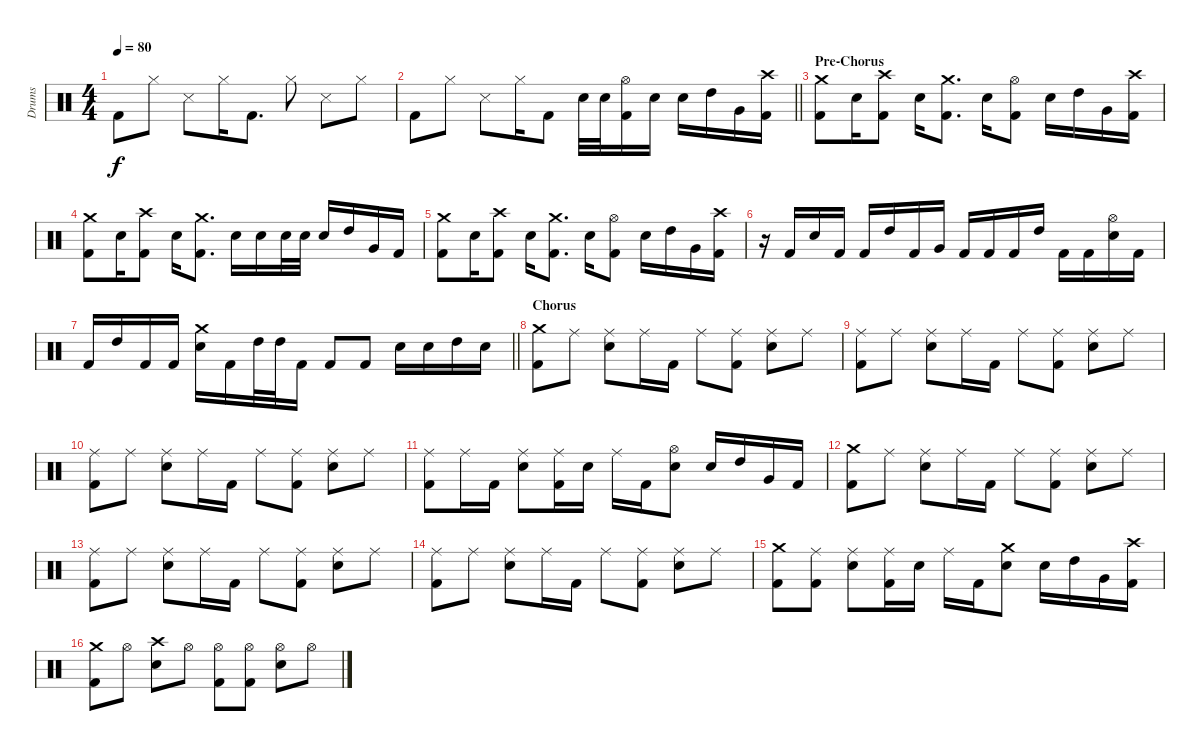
\track ("Drums" "Drums") {instrument percussion}
\staff {score}
\articulation defaults
\ts (4 4)
\tempo 80
\clef neutral
\ks c "Kick (hit) 2".8{dy f} "Hi-Hat (closed)".8 "Snare (side stick) 3".8 "Hi-Hat (closed)".16 "Kick (hit) 2".8{d} "Hi-Hat (closed)".8 "Snare (side stick) 3".8 "Hi-Hat (closed)".8
|
\barLineRight lightlight "Kick (hit) 2".8 "Hi-Hat (closed)".8 "Metronome (hit)".8 "Hi-Hat (closed)".16 "Kick (hit) 2".8 "Snare (hit) 2".32 "Snare (hit) 2".32
("Hi-Hat (open)" "Kick (hit) 2").16 "Snare (hit) 2".16 "Snare (hit) 2".16 "High Tom (hit)".16 "Very Low Tom (hit)".16 ("Crash high (hit)" "Kick (hit) 2").16 |
\section ("" "Pre-Chorus")
("Crash medium (hit)" "Kick (hit) 2").8 "Snare (hit) 2".16 ("Crash high (hit)" "Kick (hit) 2").8 "Snare (hit) 2".16 ("Crash medium (hit)" "Kick (hit) 2").8{d} "Snare (hit) 2".16 ("Hi-Hat (open)" "Kick (hit) 2").8 "Snare (hit) 2".16 "High Tom (hit)".16 "Very Low Tom (hit)".16 ("Crash high (hit)" "Kick (hit) 2").16 |
("Crash medium (hit)" "Kick (hit) 2").8 "Snare (hit) 2".16 ("Crash high (hit)" "Kick (hit) 2").8 "Snare (hit) 2".16 ("Crash medium (hit)" "Kick (hit) 2").8{d} "Snare (hit) 2".16 "Snare (hit) 2".16 "Snare (hit) 2".32 "Snare (hit) 2".32 "Snare (hit) 2".16 "High Tom (hit)".16 "Very Low Tom (hit)".16 "Kick (hit) 2".16 |
("Crash medium (hit)" "Kick (hit) 2").8 "Snare (hit) 2".16 ("Crash high (hit)" "Kick (hit) 2").8 "Snare (hit) 2".16 ("Crash medium (hit)" "Kick (hit) 2").8{d} "Snare (hit) 2".16 ("Hi-Hat (open)" "Kick (hit) 2").8 "Snare (hit) 2".16 "High Tom (hit)".16 "Very Low Tom (hit)".16 ("Crash high (hit)" "Kick (hit) 2").16 |
r.16 "Kick (hit) 2".16 "Snare (hit) 2".16 "Kick (hit) 2".16 "Kick (hit) 2".16 "High Tom (hit)".16 "Kick (hit) 2".16 "Very Low Tom (hit)".16 "Kick (hit) 2".16 "Kick (hit) 2".16 "Kick (hit) 2".16 "High Tom (hit)".16 "Kick (hit) 2".16 "Kick (hit) 2".16 ("Hi-Hat (open)" "Snare (hit) 2").16 "Kick (hit) 2".16 |
\barLineRight lightlight "Kick (hit) 2".16 "High Tom (hit)".16 "Kick (hit) 2".16 "Kick (hit) 2".16
("Crash medium (hit)" "Snare (hit) 2").16 "Kick (hit) 2".16 "High Tom (hit)".32 "High Tom (hit)".32 "Kick (hit) 2".16 "Kick (hit) 2".8 "Kick (hit) 2".8 "Snare (hit) 2".16 "Snare (hit) 2".16 "High Tom (hit)".16 "Snare (hit) 2".16 |
\section ("" "Chorus")
("Crash medium (hit)" "Kick (hit) 2").8 "Ride (middle)".8 ("Ride (middle)" "Snare (hit) 2").8 "Ride (middle)".16 "Kick (hit) 2".16 "Ride (middle)".8 ("Ride (middle)" "Kick (hit) 2").8 ("Ride (middle)" "Snare (hit) 2").8 "Ride (middle)".8 |
("Ride (middle)" "Kick (hit) 2").8 "Ride (middle)".8 ("Ride (middle)" "Snare (hit) 2").8 "Ride (middle)".16 "Kick (hit) 2".16 "Ride (middle)".8 ("Ride (middle)" "Kick (hit) 2").8 ("Ride (middle)" "Snare (hit) 2").8 "Ride (middle)".8 |
("Ride (middle)" "Kick (hit) 2").8 "Ride (middle)".8 ("Ride (middle)" "Snare (hit) 2").8 "Ride (middle)".16 "Kick (hit) 2".16 "Ride (middle)".8 ("Ride (middle)" "Kick (hit) 2").8 ("Ride (middle)" "Snare (hit) 2").8 "Ride (middle)".8 |
("Ride (middle)" "Kick (hit) 2").8 "Ride (middle)".16 "Kick (hit) 2".16 ("Ride (middle)" "Snare (hit) 2").8 ("Ride (middle)" "Kick (hit) 2").16 "Snare (hit) 2".16 "Ride (middle)".16 "Kick (hit) 2".16 ("Hi-Hat (open)" "Snare (hit) 2").8 "Snare (hit) 2".16 "High Tom (hit)".16 "Very Low Tom (hit)".16 "Kick (hit) 2".16 |
("Crash medium (hit)" "Kick (hit) 2").8 "Ride (middle)".8 ("Ride (middle)" "Snare (hit) 2").8 "Ride (middle)".16 "Kick (hit) 2".16 "Ride (middle)".8 ("Ride (middle)" "Kick (hit) 2").8 ("Ride (middle)" "Snare (hit) 2").8 "Ride (middle)".8 |
("Ride (middle)" "Kick (hit) 2").8 "Ride (middle)".8 ("Ride (middle)" "Snare (hit) 2").8 "Ride (middle)".16 "Kick (hit) 2".16 "Ride (middle)".8 ("Ride (middle)" "Kick (hit) 2").8 ("Ride (middle)" "Snare (hit) 2").8 "Ride (middle)".8 |
("Ride (middle)" "Kick (hit) 2").8 "Ride (middle)".8 ("Ride (middle)" "Snare (hit) 2").8 "Ride (middle)".16 "Kick (hit) 2".16 "Ride (middle)".8 ("Ride (middle)" "Kick (hit) 2").8 ("Ride (middle)" "Snare (hit) 2").8 "Ride (middle)".8 |
("Crash medium (hit)" "Kick (hit) 2").8 ("Ride (middle)" "Kick (hit) 2").8 ("Ride (middle)" "Snare (hit) 2").8 ("Ride (middle)" "Kick (hit) 2").16 "Snare (hit) 2".16 "Ride (middle)".16 "Kick (hit) 2".16 ("Crash medium (hit)" "Snare (hit) 2").8 "Snare (hit) 2".16 "High Tom (hit)".16 "Very Low Tom (hit)".16 ("Crash high (hit)" "Kick (hit) 2").16 |
("Crash medium (hit)" "Kick (hit) 2").8 "Hi-Hat (open)".8 ("Crash high (hit)" "Snare (hit) 2").8 "Hi-Hat (open)".8 ("Hi-Hat (open)" "Kick (hit) 2").8 ("Hi-Hat (open)" "Kick (hit) 2").8 ("Hi-Hat (open)" "Snare (hit) 2").8 "Hi-Hat (open)".8
